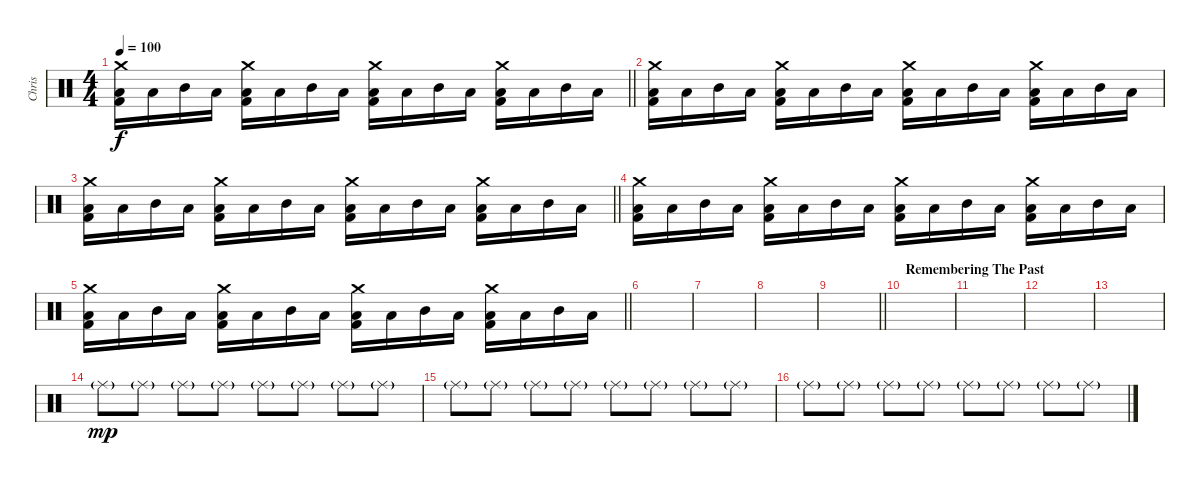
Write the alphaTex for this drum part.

\track ("Chris" "Chris") {instrument percussion}
\staff {score}
\articulation defaults
\ts (4 4)
\tempo 100
\clef neutral
\barLineRight lightlight
\ks c
("Crash medium (hit)" "Low Tom (hit)" "Kick (hit) 2").16{dy f} "Low Tom (hit)".16 "Mid Tom (hit)".16 "Low Tom (hit)".16 ("Crash medium (hit)" "Low Tom (hit)" "Kick (hit) 2").16 "Low Tom (hit)".16 "Mid Tom (hit)".16 "Low Tom (hit)".16 ("Crash medium (hit)" "Low Tom (hit)" "Kick (hit) 2").16 "Low Tom (hit)".16 "Mid Tom (hit)".16 "Low Tom (hit)".16 ("Crash medium (hit)" "Low Tom (hit)" "Kick (hit) 2").16 "Low Tom (hit)".16 "Mid Tom (hit)".16 "Low Tom (hit)".16 |
("Crash medium (hit)" "Low Tom (hit)" "Kick (hit) 2").16 "Low Tom (hit)".16 "Mid Tom (hit)".16 "Low Tom (hit)".16 ("Crash medium (hit)" "Low Tom (hit)" "Kick (hit) 2").16 "Low Tom (hit)".16 "Mid Tom (hit)".16 "Low Tom (hit)".16 ("Crash medium (hit)" "Low Tom (hit)" "Kick (hit) 2").16 "Low Tom (hit)".16 "Mid Tom (hit)".16 "Low Tom (hit)".16 ("Crash medium (hit)" "Low Tom (hit)" "Kick (hit) 2").16 "Low Tom (hit)".16 "Mid Tom (hit)".16 "Low Tom (hit)".16 |
\barLineRight lightlight
("Crash medium (hit)" "Low Tom (hit)" "Kick (hit) 2").16 "Low Tom (hit)".16 "Mid Tom (hit)".16 "Low Tom (hit)".16 ("Crash medium (hit)" "Low Tom (hit)" "Kick (hit) 2").16 "Low Tom (hit)".16 "Mid Tom (hit)".16 "Low Tom (hit)".16 ("Crash medium (hit)" "Low Tom (hit)" "Kick (hit) 2").16 "Low Tom (hit)".16 "Mid Tom (hit)".16 "Low Tom (hit)".16 ("Crash medium (hit)" "Low Tom (hit)" "Kick (hit) 2").16 "Low Tom (hit)".16 "Mid Tom (hit)".16 "Low Tom (hit)".16 |
("Crash medium (hit)" "Low Tom (hit)" "Kick (hit) 2").16 "Low Tom (hit)".16 "Mid Tom (hit)".16 "Low Tom (hit)".16 ("Crash medium (hit)" "Low Tom (hit)" "Kick (hit) 2").16 "Low Tom (hit)".16 "Mid Tom (hit)".16 "Low Tom (hit)".16 ("Crash medium (hit)" "Low Tom (hit)" "Kick (hit) 2").16 "Low Tom (hit)".16 "Mid Tom (hit)".16 "Low Tom (hit)".16 ("Crash medium (hit)" "Low Tom (hit)" "Kick (hit) 2").16 "Low Tom (hit)".16 "Mid Tom (hit)".16 "Low Tom (hit)".16 |
\barLineRight lightlight
("Crash medium (hit)" "Low Tom (hit)" "Kick (hit) 2").16 "Low Tom (hit)".16 "Mid Tom (hit)".16 "Low Tom (hit)".16 ("Crash medium (hit)" "Low Tom (hit)" "Kick (hit) 2").16 "Low Tom (hit)".16 "Mid Tom (hit)".16 "Low Tom (hit)".16 ("Crash medium (hit)" "Low Tom (hit)" "Kick (hit) 2").16 "Low Tom (hit)".16 "Mid Tom (hit)".16 "Low Tom (hit)".16 ("Crash medium (hit)" "Low Tom (hit)" "Kick (hit) 2").16 "Low Tom (hit)".16 "Mid Tom (hit)".16 "Low Tom (hit)".16 |
|
|
|
\barLineRight lightlight
|
\section ("" "Remembering The Past")
|
|
|
|
"Ride (middle)"{g}.8{dy mp} "Ride (middle)"{g}.8 "Ride (middle)"{g}.8 "Ride (middle)"{g}.8 "Ride (middle)"{g}.8 "Ride (middle)"{g}.8 "Ride (middle)"{g}.8 "Ride (middle)"{g}.8 |
"Ride (middle)"{g}.8 "Ride (middle)"{g}.8 "Ride (middle)"{g}.8 "Ride (middle)"{g}.8 "Ride (middle)"{g}.8 "Ride (middle)"{g}.8 "Ride (middle)"{g}.8 "Ride (middle)"{g}.8 |
"Ride (middle)"{g}.8 "Ride (middle)"{g}.8 "Ride (middle)"{g}.8 "Ride (middle)"{g}.8 "Ride (middle)"{g}.8 "Ride (middle)"{g}.8 "Ride (middle)"{g}.8 "Ride (middle)"{g}.8
